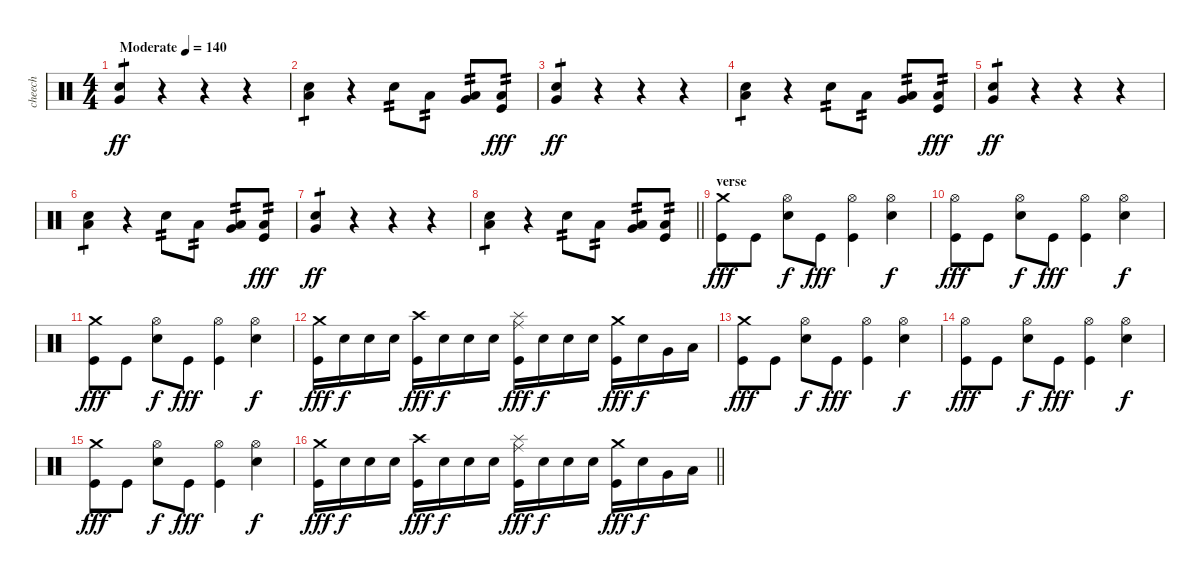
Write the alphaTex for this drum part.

\track ("cheech" "cheech") {solo instrument percussion}
\staff {score}
\articulation defaults
\ts (4 4)
\tempo (140 "Moderate")
\clef neutral
\ks c
("Electric Snare (hit)" "Very Low Tom (hit)").4{tp 1 dy ff} r.4 r.4 r.4 |
("Electric Snare (hit)" "Low Floor Tom (hit)").4{tp 1} r.4 "Electric Snare (hit)".8{tp 2} "Low Tom (hit)".8{tp 2} ("Very Low Tom (hit)" "Low Floor Tom (hit)").8{tp 2} ("Low Floor Tom (hit)" "Kick (hit)").8{tp 2 dy fff} |
("Electric Snare (hit)" "Very Low Tom (hit)").4{tp 1 dy ff} r.4 r.4 r.4 |
("Electric Snare (hit)" "Low Floor Tom (hit)").4{tp 1} r.4 "Electric Snare (hit)".8{tp 2} "Low Tom (hit)".8{tp 2} ("Very Low Tom (hit)" "Low Floor Tom (hit)").8{tp 2} ("Low Floor Tom (hit)" "Kick (hit)").8{tp 2 dy fff} |
("Electric Snare (hit)" "Very Low Tom (hit)").4{tp 1 dy ff} r.4 r.4 r.4 |
("Electric Snare (hit)" "Low Floor Tom (hit)").4{tp 1} r.4 "Electric Snare (hit)".8{tp 2} "Low Tom (hit)".8{tp 2} ("Very Low Tom (hit)" "Low Floor Tom (hit)").8{tp 2} ("Low Floor Tom (hit)" "Kick (hit)").8{tp 2 dy fff} |
("Electric Snare (hit)" "Very Low Tom (hit)").4{tp 1 dy ff} r.4 r.4 r.4 |
\barLineRight lightlight
("Electric Snare (hit)" "Low Floor Tom (hit)").4{tp 1} r.4 "Electric Snare (hit)".8{tp 2} "Low Tom (hit)".8{tp 2} ("Very Low Tom (hit)" "Low Floor Tom (hit)").8{tp 2} ("Low Floor Tom (hit)" "Kick (hit)").8{tp 2} |
\section ("" "verse")
("Crash medium (hit)" "Kick (hit)").8{dy fff} "Kick (hit)".8 ("Hi-Hat (open)" "Electric Snare (hit)").8{dy f} "Kick (hit)".8{dy fff} ("Hi-Hat (open)" "Kick (hit)").4 ("Hi-Hat (open)" "Electric Snare (hit)").4{dy f} |
("Hi-Hat (open)" "Kick (hit)").8{dy fff} "Kick (hit)".8 ("Hi-Hat (open)" "Electric Snare (hit)").8{dy f} "Kick (hit)".8{dy fff} ("Hi-Hat (open)" "Kick (hit)").4 ("Hi-Hat (open)" "Electric Snare (hit)").4{dy f} |
("Crash medium (hit)" "Kick (hit)").8{dy fff} "Kick (hit)".8 ("Hi-Hat (open)" "Electric Snare (hit)").8{dy f} "Kick (hit)".8{dy fff} ("Hi-Hat (open)" "Kick (hit)").4 ("Hi-Hat (open)" "Electric Snare (hit)").4{dy f} |
("Crash medium (hit)" "Kick (hit)").16{dy fff} "Electric Snare (hit)".16{dy f} "Electric Snare (hit)".16 "Electric Snare (hit)".16 ("Crash high (hit)" "Kick (hit)").16{dy fff} "Electric Snare (hit)".16{dy f} "Electric Snare (hit)".16 "Electric Snare (hit)".16 ("Splash (hit)" "Ride (middle)" "Kick (hit)").16{dy fff} "Electric Snare (hit)".16{dy f} "Electric Snare (hit)".16 "Electric Snare (hit)".16 ("Crash medium (hit)" "Kick (hit)").16{dy fff} "Electric Snare (hit)".16{dy f} "Very Low Tom (hit)".16 "Low Floor Tom (hit)".16 |
("Crash medium (hit)" "Kick (hit)").8{dy fff} "Kick (hit)".8 ("Hi-Hat (open)" "Electric Snare (hit)").8{dy f} "Kick (hit)".8{dy fff} ("Hi-Hat (open)" "Kick (hit)").4 ("Hi-Hat (open)" "Electric Snare (hit)").4{dy f} |
("Hi-Hat (open)" "Kick (hit)").8{dy fff} "Kick (hit)".8 ("Hi-Hat (open)" "Electric Snare (hit)").8{dy f} "Kick (hit)".8{dy fff} ("Hi-Hat (open)" "Kick (hit)").4 ("Hi-Hat (open)" "Electric Snare (hit)").4{dy f} |
("Crash medium (hit)" "Kick (hit)").8{dy fff} "Kick (hit)".8 ("Hi-Hat (open)" "Electric Snare (hit)").8{dy f} "Kick (hit)".8{dy fff} ("Hi-Hat (open)" "Kick (hit)").4 ("Hi-Hat (open)" "Electric Snare (hit)").4{dy f} |
\barLineRight lightlight
("Crash medium (hit)" "Kick (hit)").16{dy fff} "Electric Snare (hit)".16{dy f} "Electric Snare (hit)".16 "Electric Snare (hit)".16 ("Crash high (hit)" "Kick (hit)").16{dy fff} "Electric Snare (hit)".16{dy f} "Electric Snare (hit)".16 "Electric Snare (hit)".16 ("Splash (hit)" "Ride (middle)" "Kick (hit)").16{dy fff} "Electric Snare (hit)".16{dy f} "Electric Snare (hit)".16 "Electric Snare (hit)".16 ("Crash medium (hit)" "Kick (hit)").16{dy fff} "Electric Snare (hit)".16{dy f} "Very Low Tom (hit)".16 "Low Floor Tom (hit)".16
